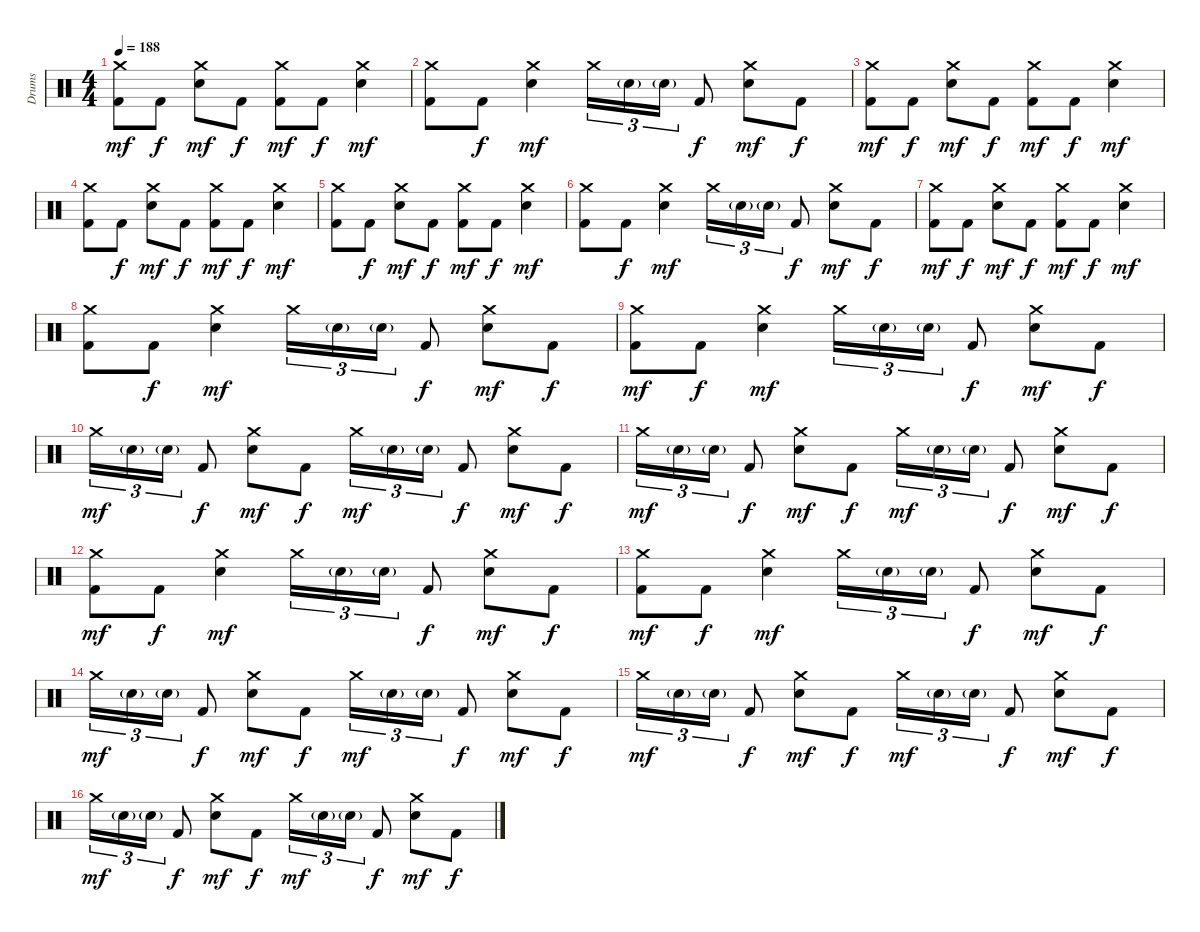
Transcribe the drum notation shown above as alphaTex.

\track ("Drums" "Drums") {instrument percussion}
\staff {score}
\articulation defaults
\ts (4 4)
\tempo 188
\clef neutral
\ks c
("Crash medium (hit)" "Kick (hit) 2").8{dy mf} "Kick (hit) 2".8{dy f} ("Crash medium (hit)" "Electric Snare (hit)").8{dy mf} "Kick (hit) 2".8{dy f} ("Crash medium (hit)" "Kick (hit) 2").8{dy mf} "Kick (hit) 2".8{dy f} ("Crash medium (hit)" "Electric Snare (hit)").4{dy mf} |
("Crash medium (hit)" "Kick (hit) 2").8 "Kick (hit) 2".8{dy f} ("Crash medium (hit)" "Electric Snare (hit)").4{dy mf} "Crash medium (hit)".16{tu (3 2)} "Electric Snare (hit)"{g}.16{tu (3 2)} "Electric Snare (hit)"{g}.16{tu (3 2)} "Kick (hit) 2".8{dy f} ("Crash medium (hit)" "Electric Snare (hit)").8{dy mf} "Kick (hit) 2".8{dy f} |
("Crash medium (hit)" "Kick (hit) 2").8{dy mf} "Kick (hit) 2".8{dy f} ("Crash medium (hit)" "Electric Snare (hit)").8{dy mf} "Kick (hit) 2".8{dy f} ("Crash medium (hit)" "Kick (hit) 2").8{dy mf} "Kick (hit) 2".8{dy f} ("Crash medium (hit)" "Electric Snare (hit)").4{dy mf} |
("Crash medium (hit)" "Kick (hit) 2").8 "Kick (hit) 2".8{dy f} ("Crash medium (hit)" "Electric Snare (hit)").8{dy mf} "Kick (hit) 2".8{dy f} ("Crash medium (hit)" "Kick (hit) 2").8{dy mf} "Kick (hit) 2".8{dy f} ("Crash medium (hit)" "Electric Snare (hit)").4{dy mf} |
("Crash medium (hit)" "Kick (hit) 2").8 "Kick (hit) 2".8{dy f} ("Crash medium (hit)" "Electric Snare (hit)").8{dy mf} "Kick (hit) 2".8{dy f} ("Crash medium (hit)" "Kick (hit) 2").8{dy mf} "Kick (hit) 2".8{dy f} ("Crash medium (hit)" "Electric Snare (hit)").4{dy mf} |
("Crash medium (hit)" "Kick (hit) 2").8 "Kick (hit) 2".8{dy f} ("Crash medium (hit)" "Electric Snare (hit)").4{dy mf} "Crash medium (hit)".16{tu (3 2)} "Electric Snare (hit)"{g}.16{tu (3 2)} "Electric Snare (hit)"{g}.16{tu (3 2)} "Kick (hit) 2".8{dy f} ("Crash medium (hit)" "Electric Snare (hit)").8{dy mf} "Kick (hit) 2".8{dy f} |
("Crash medium (hit)" "Kick (hit) 2").8{dy mf} "Kick (hit) 2".8{dy f} ("Crash medium (hit)" "Electric Snare (hit)").8{dy mf} "Kick (hit) 2".8{dy f} ("Crash medium (hit)" "Kick (hit) 2").8{dy mf} "Kick (hit) 2".8{dy f} ("Crash medium (hit)" "Electric Snare (hit)").4{dy mf} |
("Crash medium (hit)" "Kick (hit) 2").8 "Kick (hit) 2".8{dy f} ("Crash medium (hit)" "Electric Snare (hit)").4{dy mf} "Crash medium (hit)".16{tu (3 2)} "Electric Snare (hit)"{g}.16{tu (3 2)} "Electric Snare (hit)"{g}.16{tu (3 2)} "Kick (hit) 2".8{dy f} ("Crash medium (hit)" "Electric Snare (hit)").8{dy mf} "Kick (hit) 2".8{dy f} |
("Crash medium (hit)" "Kick (hit) 2").8{dy mf} "Kick (hit) 2".8{dy f} ("Crash medium (hit)" "Electric Snare (hit)").4{dy mf} "Crash medium (hit)".16{tu (3 2)} "Electric Snare (hit)"{g}.16{tu (3 2)} "Electric Snare (hit)"{g}.16{tu (3 2)} "Kick (hit) 2".8{dy f} ("Crash medium (hit)" "Electric Snare (hit)").8{dy mf} "Kick (hit) 2".8{dy f} |
"Crash medium (hit)".16{tu (3 2) dy mf} "Electric Snare (hit)"{g}.16{tu (3 2)} "Electric Snare (hit)"{g}.16{tu (3 2)} "Kick (hit) 2".8{dy f} ("Crash medium (hit)" "Electric Snare (hit)").8{dy mf} "Kick (hit) 2".8{dy f} "Crash medium (hit)".16{tu (3 2) dy mf} "Electric Snare (hit)"{g}.16{tu (3 2)} "Electric Snare (hit)"{g}.16{tu (3 2)} "Kick (hit) 2".8{dy f} ("Crash medium (hit)" "Electric Snare (hit)").8{dy mf} "Kick (hit) 2".8{dy f} |
"Crash medium (hit)".16{tu (3 2) dy mf} "Electric Snare (hit)"{g}.16{tu (3 2)} "Electric Snare (hit)"{g}.16{tu (3 2)} "Kick (hit) 2".8{dy f} ("Crash medium (hit)" "Electric Snare (hit)").8{dy mf} "Kick (hit) 2".8{dy f} "Crash medium (hit)".16{tu (3 2) dy mf} "Electric Snare (hit)"{g}.16{tu (3 2)} "Electric Snare (hit)"{g}.16{tu (3 2)} "Kick (hit) 2".8{dy f} ("Crash medium (hit)" "Electric Snare (hit)").8{dy mf} "Kick (hit) 2".8{dy f} |
("Crash medium (hit)" "Kick (hit) 2").8{dy mf} "Kick (hit) 2".8{dy f} ("Crash medium (hit)" "Electric Snare (hit)").4{dy mf} "Crash medium (hit)".16{tu (3 2)} "Electric Snare (hit)"{g}.16{tu (3 2)} "Electric Snare (hit)"{g}.16{tu (3 2)} "Kick (hit) 2".8{dy f} ("Crash medium (hit)" "Electric Snare (hit)").8{dy mf} "Kick (hit) 2".8{dy f} |
("Crash medium (hit)" "Kick (hit) 2").8{dy mf} "Kick (hit) 2".8{dy f} ("Crash medium (hit)" "Electric Snare (hit)").4{dy mf} "Crash medium (hit)".16{tu (3 2)} "Electric Snare (hit)"{g}.16{tu (3 2)} "Electric Snare (hit)"{g}.16{tu (3 2)} "Kick (hit) 2".8{dy f} ("Crash medium (hit)" "Electric Snare (hit)").8{dy mf} "Kick (hit) 2".8{dy f} |
"Crash medium (hit)".16{tu (3 2) dy mf} "Electric Snare (hit)"{g}.16{tu (3 2)} "Electric Snare (hit)"{g}.16{tu (3 2)} "Kick (hit) 2".8{dy f} ("Crash medium (hit)" "Electric Snare (hit)").8{dy mf} "Kick (hit) 2".8{dy f} "Crash medium (hit)".16{tu (3 2) dy mf} "Electric Snare (hit)"{g}.16{tu (3 2)} "Electric Snare (hit)"{g}.16{tu (3 2)} "Kick (hit) 2".8{dy f} ("Crash medium (hit)" "Electric Snare (hit)").8{dy mf} "Kick (hit) 2".8{dy f} |
"Crash medium (hit)".16{tu (3 2) dy mf} "Electric Snare (hit)"{g}.16{tu (3 2)} "Electric Snare (hit)"{g}.16{tu (3 2)} "Kick (hit) 2".8{dy f} ("Crash medium (hit)" "Electric Snare (hit)").8{dy mf} "Kick (hit) 2".8{dy f} "Crash medium (hit)".16{tu (3 2) dy mf} "Electric Snare (hit)"{g}.16{tu (3 2)} "Electric Snare (hit)"{g}.16{tu (3 2)} "Kick (hit) 2".8{dy f} ("Crash medium (hit)" "Electric Snare (hit)").8{dy mf} "Kick (hit) 2".8{dy f} |
"Crash medium (hit)".16{tu (3 2) dy mf} "Electric Snare (hit)"{g}.16{tu (3 2)} "Electric Snare (hit)"{g}.16{tu (3 2)} "Kick (hit) 2".8{dy f} ("Crash medium (hit)" "Electric Snare (hit)").8{dy mf} "Kick (hit) 2".8{dy f} "Crash medium (hit)".16{tu (3 2) dy mf} "Electric Snare (hit)"{g}.16{tu (3 2)} "Electric Snare (hit)"{g}.16{tu (3 2)} "Kick (hit) 2".8{dy f} ("Crash medium (hit)" "Electric Snare (hit)").8{dy mf} "Kick (hit) 2".8{dy f}
